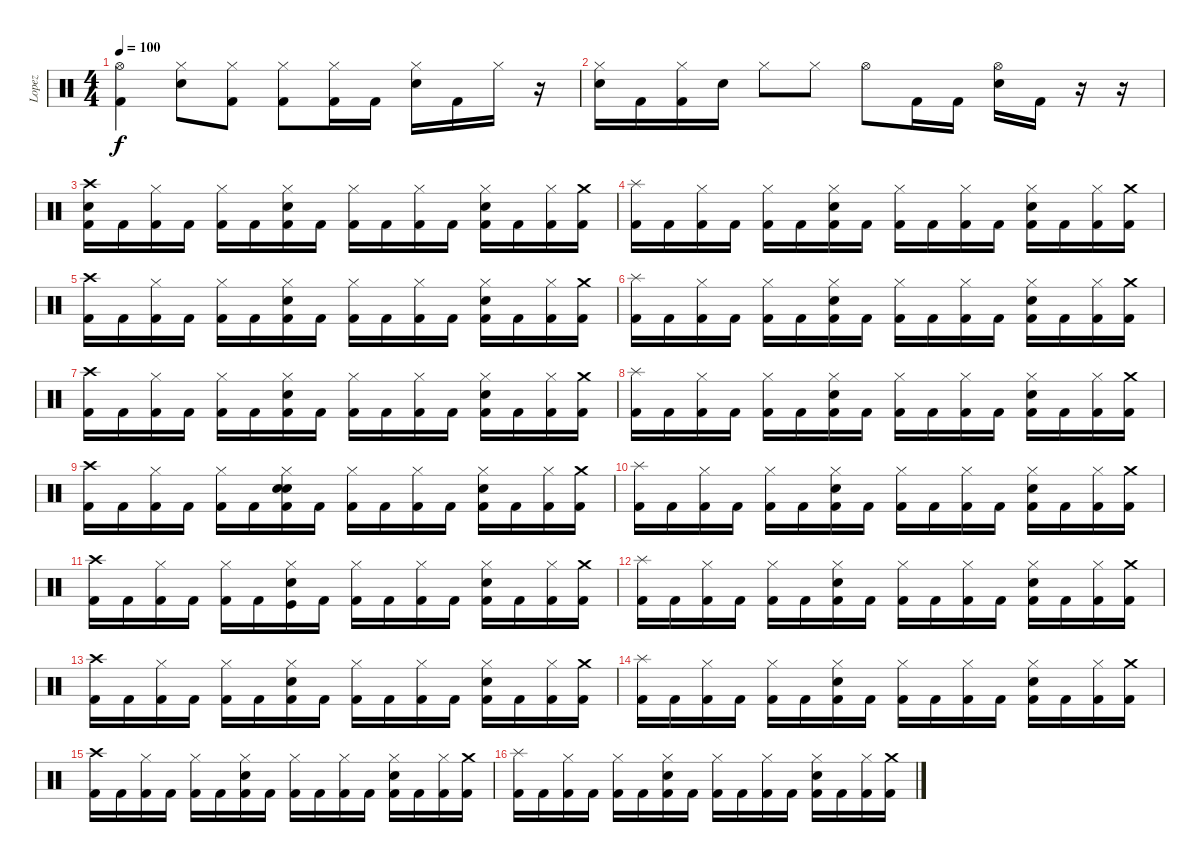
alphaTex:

\track ("Lopez" "Lopez") {instrument percussion}
\staff {score}
\articulation defaults
\ts (4 4)
\tempo 100
\clef neutral
\ks c
("Hi-Hat (open)" "Kick (hit) 2").4{dy f} ("Hi-Hat (closed)" "Snare (hit) 2").8 ("Hi-Hat (closed)" "Kick (hit) 2").8 ("Hi-Hat (closed)" "Kick (hit) 2").8 ("Hi-Hat (closed)" "Kick (hit) 2").16 "Kick (hit) 2".16 ("Hi-Hat (closed)" "Snare (hit) 2").16 "Kick (hit) 2".16 "Hi-Hat (closed)".16 r.16 |
("Hi-Hat (closed)" "Snare (hit) 2").16 "Kick (hit) 2".16 ("Hi-Hat (closed)" "Kick (hit) 2").16 "Snare (hit) 2".16 "Hi-Hat (closed)".8 "Hi-Hat (closed)".8 "Hi-Hat (open)".8 "Kick (hit) 2".16 "Kick (hit) 2".16 ("Hi-Hat (open)" "Snare (hit) 2").16 "Kick (hit) 2".16 r.16 r.16 |
("Crash high (hit)" "Snare (hit) 2" "Kick (hit) 2").16 "Kick (hit) 2".16 ("Hi-Hat (closed)" "Kick (hit) 2").16 "Kick (hit) 2".16 ("Hi-Hat (closed)" "Kick (hit) 2").16 "Kick (hit) 2".16 ("Hi-Hat (closed)" "Snare (hit) 2" "Kick (hit) 2").16 "Kick (hit) 2".16 ("Hi-Hat (closed)" "Kick (hit) 2").16 "Kick (hit) 2".16 ("Hi-Hat (closed)" "Kick (hit) 2").16 "Kick (hit) 2".16 ("Hi-Hat (closed)" "Snare (hit) 2" "Kick (hit) 2").16 "Kick (hit) 2".16 ("Hi-Hat (closed)" "Kick (hit) 2").16 ("Crash medium (hit)" "Kick (hit) 2").16 |
("Splash (hit)" "Kick (hit) 2").16 "Kick (hit) 2".16 ("Hi-Hat (closed)" "Kick (hit) 2").16 "Kick (hit) 2".16 ("Hi-Hat (closed)" "Kick (hit) 2").16 "Kick (hit) 2".16 ("Hi-Hat (closed)" "Snare (hit) 2" "Kick (hit) 2").16 "Kick (hit) 2".16 ("Hi-Hat (closed)" "Kick (hit) 2").16 "Kick (hit) 2".16 ("Hi-Hat (closed)" "Kick (hit) 2").16 "Kick (hit) 2".16 ("Hi-Hat (closed)" "Snare (hit) 2" "Kick (hit) 2").16 "Kick (hit) 2".16 ("Hi-Hat (closed)" "Kick (hit) 2").16 ("Crash medium (hit)" "Kick (hit) 2").16 |
("Crash high (hit)" "Kick (hit) 2").16 "Kick (hit) 2".16 ("Hi-Hat (closed)" "Kick (hit) 2").16 "Kick (hit) 2".16 ("Hi-Hat (closed)" "Kick (hit) 2").16 "Kick (hit) 2".16 ("Hi-Hat (closed)" "Snare (hit) 2" "Kick (hit) 2").16 "Kick (hit) 2".16 ("Hi-Hat (closed)" "Kick (hit) 2").16 "Kick (hit) 2".16 ("Hi-Hat (closed)" "Kick (hit) 2").16 "Kick (hit) 2".16 ("Hi-Hat (closed)" "Snare (hit) 2" "Kick (hit) 2").16 "Kick (hit) 2".16 ("Hi-Hat (closed)" "Kick (hit) 2").16 ("Crash medium (hit)" "Kick (hit) 2").16 |
("Splash (hit)" "Kick (hit) 2").16 "Kick (hit) 2".16 ("Hi-Hat (closed)" "Kick (hit) 2").16 "Kick (hit) 2".16 ("Hi-Hat (closed)" "Kick (hit) 2").16 "Kick (hit) 2".16 ("Hi-Hat (closed)" "Snare (hit) 2" "Kick (hit) 2").16 "Kick (hit) 2".16 ("Hi-Hat (closed)" "Kick (hit) 2").16 "Kick (hit) 2".16 ("Hi-Hat (closed)" "Kick (hit) 2").16 "Kick (hit) 2".16 ("Hi-Hat (closed)" "Snare (hit) 2" "Kick (hit) 2").16 "Kick (hit) 2".16 ("Hi-Hat (closed)" "Kick (hit) 2").16 ("Crash medium (hit)" "Kick (hit) 2").16 |
("Crash high (hit)" "Kick (hit) 2").16 "Kick (hit) 2".16 ("Hi-Hat (closed)" "Kick (hit) 2").16 "Kick (hit) 2".16 ("Hi-Hat (closed)" "Kick (hit) 2").16 "Kick (hit) 2".16 ("Hi-Hat (closed)" "Snare (hit) 2" "Kick (hit) 2").16 "Kick (hit) 2".16 ("Hi-Hat (closed)" "Kick (hit) 2").16 "Kick (hit) 2".16 ("Hi-Hat (closed)" "Kick (hit) 2").16 "Kick (hit) 2".16 ("Hi-Hat (closed)" "Snare (hit) 2" "Kick (hit) 2").16 "Kick (hit) 2".16 ("Hi-Hat (closed)" "Kick (hit) 2").16 ("Crash medium (hit)" "Kick (hit) 2").16 |
("Splash (hit)" "Kick (hit) 2").16 "Kick (hit) 2".16 ("Hi-Hat (closed)" "Kick (hit) 2").16 "Kick (hit) 2".16 ("Hi-Hat (closed)" "Kick (hit) 2").16 "Kick (hit) 2".16 ("Hi-Hat (closed)" "Snare (hit) 2" "Kick (hit) 2").16 "Kick (hit) 2".16 ("Hi-Hat (closed)" "Kick (hit) 2").16 "Kick (hit) 2".16 ("Hi-Hat (closed)" "Kick (hit) 2").16 "Kick (hit) 2".16 ("Hi-Hat (closed)" "Snare (hit) 2" "Kick (hit) 2").16 "Kick (hit) 2".16 ("Hi-Hat (closed)" "Kick (hit) 2").16 ("Crash medium (hit)" "Kick (hit) 2").16 |
("Crash high (hit)" "Kick (hit) 2").16 "Kick (hit) 2".16 ("Hi-Hat (closed)" "Kick (hit) 2").16 "Kick (hit) 2".16 ("Hi-Hat (closed)" "Kick (hit) 2").16 "Kick (hit) 2".16 ("Hi-Hat (closed)" "Snare (hit)" "Snare (hit) 2" "Kick (hit) 2").16 "Kick (hit) 2".16 ("Hi-Hat (closed)" "Kick (hit) 2").16 "Kick (hit) 2".16 ("Hi-Hat (closed)" "Kick (hit) 2").16 "Kick (hit) 2".16 ("Hi-Hat (closed)" "Snare (hit) 2" "Kick (hit) 2").16 "Kick (hit) 2".16 ("Hi-Hat (closed)" "Kick (hit) 2").16 ("Crash medium (hit)" "Kick (hit) 2").16 |
("Splash (hit)" "Kick (hit) 2").16 "Kick (hit) 2".16 ("Hi-Hat (closed)" "Kick (hit) 2").16 "Kick (hit) 2".16 ("Hi-Hat (closed)" "Kick (hit) 2").16 "Kick (hit) 2".16 ("Hi-Hat (closed)" "Snare (hit) 2" "Kick (hit) 2").16 "Kick (hit) 2".16 ("Hi-Hat (closed)" "Kick (hit) 2").16 "Kick (hit) 2".16 ("Hi-Hat (closed)" "Kick (hit) 2").16 "Kick (hit) 2".16 ("Hi-Hat (closed)" "Snare (hit) 2" "Kick (hit) 2").16 "Kick (hit) 2".16 ("Hi-Hat (closed)" "Kick (hit) 2").16 ("Crash medium (hit)" "Kick (hit) 2").16 |
("Crash high (hit)" "Kick (hit) 2").16 "Kick (hit) 2".16 ("Hi-Hat (closed)" "Kick (hit) 2").16 "Kick (hit) 2".16 ("Hi-Hat (closed)" "Kick (hit) 2").16 "Kick (hit) 2".16 ("Hi-Hat (closed)" "Snare (hit) 2" "Kick (hit)").16 "Kick (hit) 2".16 ("Hi-Hat (closed)" "Kick (hit) 2").16 "Kick (hit) 2".16 ("Hi-Hat (closed)" "Kick (hit) 2").16 "Kick (hit) 2".16 ("Hi-Hat (closed)" "Snare (hit) 2" "Kick (hit) 2").16 "Kick (hit) 2".16 ("Hi-Hat (closed)" "Kick (hit) 2").16 ("Crash medium (hit)" "Kick (hit) 2").16 |
("Splash (hit)" "Kick (hit) 2").16 "Kick (hit) 2".16 ("Hi-Hat (closed)" "Kick (hit) 2").16 "Kick (hit) 2".16 ("Hi-Hat (closed)" "Kick (hit) 2").16 "Kick (hit) 2".16 ("Hi-Hat (closed)" "Snare (hit) 2" "Kick (hit) 2").16 "Kick (hit) 2".16 ("Hi-Hat (closed)" "Kick (hit) 2").16 "Kick (hit) 2".16 ("Hi-Hat (closed)" "Kick (hit) 2").16 "Kick (hit) 2".16 ("Hi-Hat (closed)" "Snare (hit) 2" "Kick (hit) 2").16 "Kick (hit) 2".16 ("Hi-Hat (closed)" "Kick (hit) 2").16 ("Crash medium (hit)" "Kick (hit) 2").16 |
("Crash high (hit)" "Kick (hit) 2").16 "Kick (hit) 2".16 ("Hi-Hat (closed)" "Kick (hit) 2").16 "Kick (hit) 2".16 ("Hi-Hat (closed)" "Kick (hit) 2").16 "Kick (hit) 2".16 ("Hi-Hat (closed)" "Snare (hit) 2" "Kick (hit) 2").16 "Kick (hit) 2".16 ("Hi-Hat (closed)" "Kick (hit) 2").16 "Kick (hit) 2".16 ("Hi-Hat (closed)" "Kick (hit) 2").16 "Kick (hit) 2".16 ("Hi-Hat (closed)" "Snare (hit) 2" "Kick (hit) 2").16 "Kick (hit) 2".16 ("Hi-Hat (closed)" "Kick (hit) 2").16 ("Crash medium (hit)" "Kick (hit) 2").16 |
("Splash (hit)" "Kick (hit) 2").16 "Kick (hit) 2".16 ("Hi-Hat (closed)" "Kick (hit) 2").16 "Kick (hit) 2".16 ("Hi-Hat (closed)" "Kick (hit) 2").16 "Kick (hit) 2".16 ("Hi-Hat (closed)" "Snare (hit) 2" "Kick (hit) 2").16 "Kick (hit) 2".16 ("Hi-Hat (closed)" "Kick (hit) 2").16 "Kick (hit) 2".16 ("Hi-Hat (closed)" "Kick (hit) 2").16 "Kick (hit) 2".16 ("Hi-Hat (closed)" "Snare (hit) 2" "Kick (hit) 2").16 "Kick (hit) 2".16 ("Hi-Hat (closed)" "Kick (hit) 2").16 ("Crash medium (hit)" "Kick (hit) 2").16 |
("Crash high (hit)" "Kick (hit) 2").16 "Kick (hit) 2".16 ("Hi-Hat (closed)" "Kick (hit) 2").16 "Kick (hit) 2".16 ("Hi-Hat (closed)" "Kick (hit) 2").16 "Kick (hit) 2".16 ("Hi-Hat (closed)" "Snare (hit) 2" "Kick (hit) 2").16 "Kick (hit) 2".16 ("Hi-Hat (closed)" "Kick (hit) 2").16 "Kick (hit) 2".16 ("Hi-Hat (closed)" "Kick (hit) 2").16 "Kick (hit) 2".16 ("Hi-Hat (closed)" "Snare (hit) 2" "Kick (hit) 2").16 "Kick (hit) 2".16 ("Hi-Hat (closed)" "Kick (hit) 2").16 ("Crash medium (hit)" "Kick (hit) 2").16 |
("Splash (hit)" "Kick (hit) 2").16 "Kick (hit) 2".16 ("Hi-Hat (closed)" "Kick (hit) 2").16 "Kick (hit) 2".16 ("Hi-Hat (closed)" "Kick (hit) 2").16 "Kick (hit) 2".16 ("Hi-Hat (closed)" "Snare (hit) 2" "Kick (hit) 2").16 "Kick (hit) 2".16 ("Hi-Hat (closed)" "Kick (hit) 2").16 "Kick (hit) 2".16 ("Hi-Hat (closed)" "Kick (hit) 2").16 "Kick (hit) 2".16 ("Hi-Hat (closed)" "Snare (hit) 2" "Kick (hit) 2").16 "Kick (hit) 2".16 ("Hi-Hat (closed)" "Kick (hit) 2").16 ("Crash medium (hit)" "Kick (hit) 2").16
